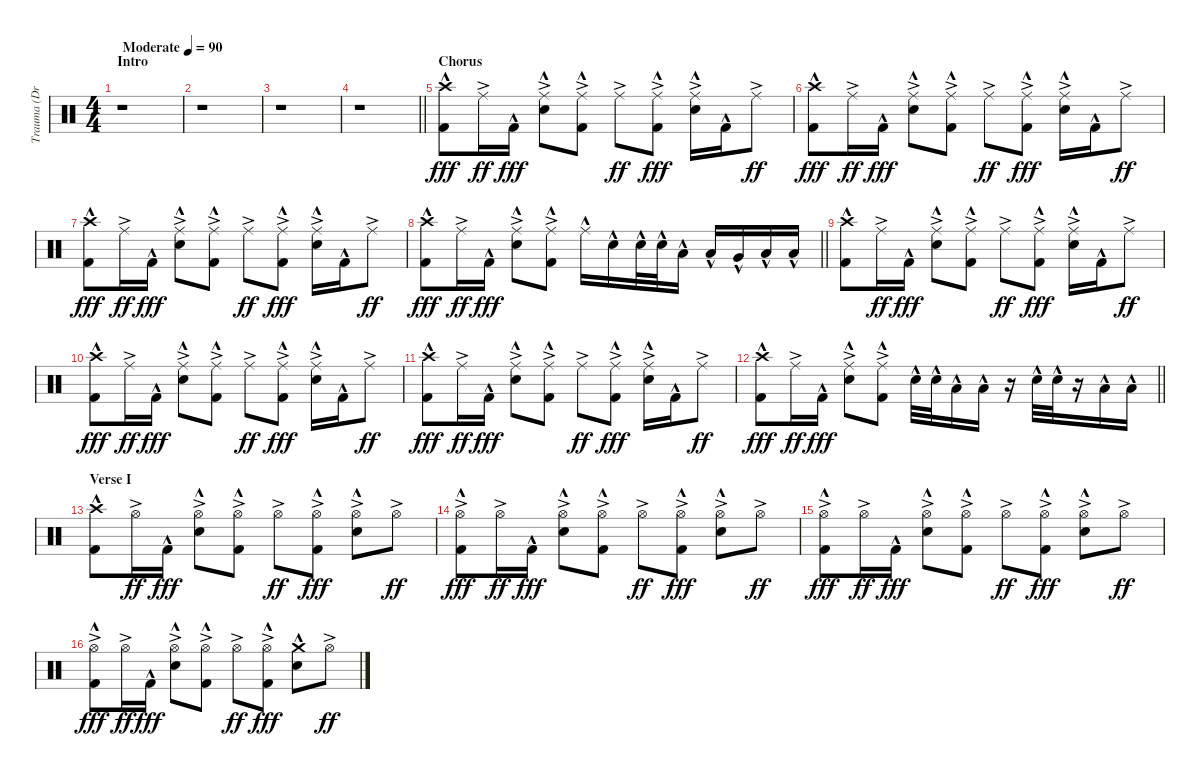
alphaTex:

\track ("Trauma (Drums)" "Trauma (Dr") {instrument percussion}
\staff {score}
\articulation defaults
\ts (4 4)
\section ("" "Intro")
\tempo (90 "Moderate")
\clef neutral
\ks c
r.1{dy fff} |
r.1 |
r.1 |
\barLineRight lightlight
r.1 |
\section ("" "Chorus")
("Crash high (hit)"{hac} "Kick (hit) 2"{hac}).8 "Ride (middle)"{ac}.16{dy ff} "Kick (hit) 2"{hac}.16{dy fff} ("Ride (middle)"{ac} "Snare (hit) 2"{hac}).8 ("Ride (middle)"{ac} "Kick (hit) 2"{hac}).8 "Ride (middle)"{ac}.8{dy ff} ("Ride (middle)"{ac} "Kick (hit) 2"{hac}).8{dy fff} ("Ride (middle)"{ac} "Snare (hit) 2"{hac}).16 "Kick (hit) 2"{hac}.16 "Ride (middle)"{ac}.8{dy ff} |
("Crash high (hit)"{hac} "Kick (hit) 2"{hac}).8{dy fff} "Ride (middle)"{ac}.16{dy ff} "Kick (hit) 2"{hac}.16{dy fff} ("Ride (middle)"{ac} "Snare (hit) 2"{hac}).8 ("Ride (middle)"{ac} "Kick (hit) 2"{hac}).8 "Ride (middle)"{ac}.8{dy ff} ("Ride (middle)"{ac} "Kick (hit) 2"{hac}).8{dy fff} ("Ride (middle)"{ac} "Snare (hit) 2"{hac}).16 "Kick (hit) 2"{hac}.16 "Ride (middle)"{ac}.8{dy ff} |
("Crash high (hit)"{hac} "Kick (hit) 2"{hac}).8{dy fff} "Ride (middle)"{ac}.16{dy ff} "Kick (hit) 2"{hac}.16{dy fff} ("Ride (middle)"{ac} "Snare (hit) 2"{hac}).8 ("Ride (middle)"{ac} "Kick (hit) 2"{hac}).8 "Ride (middle)"{ac}.8{dy ff} ("Ride (middle)"{ac} "Kick (hit) 2"{hac}).8{dy fff} ("Ride (middle)"{ac} "Snare (hit) 2"{hac}).16 "Kick (hit) 2"{hac}.16 "Ride (middle)"{ac}.8{dy ff} |
\barLineRight lightlight
("Crash high (hit)"{hac} "Kick (hit) 2"{hac}).8{dy fff} "Ride (middle)"{ac}.16{dy ff} "Kick (hit) 2"{hac}.16{dy fff} ("Ride (middle)"{ac} "Snare (hit) 2"{hac}).8 ("Ride (middle)"{ac} "Kick (hit) 2"{hac}).8 "Ride (middle)"{hac}.16 "Snare (hit) 2"{hac}.16 "Snare (hit) 2"{hac}.32 "Snare (hit) 2"{hac}.32 "Low Tom (hit)"{hac}.16 "Low Tom (hit)"{hac}.16 "Very Low Tom (hit)"{hac}.16 "Low Floor Tom (hit)"{hac}.16 "Low Floor Tom (hit)"{hac}.16 |
("Crash high (hit)"{hac} "Kick (hit) 2"{hac}).8 "Ride (middle)"{ac}.16{dy ff} "Kick (hit) 2"{hac}.16{dy fff} ("Ride (middle)"{ac} "Snare (hit) 2"{hac}).8 ("Ride (middle)"{ac} "Kick (hit) 2"{hac}).8 "Ride (middle)"{ac}.8{dy ff} ("Ride (middle)"{ac} "Kick (hit) 2"{hac}).8{dy fff} ("Ride (middle)"{ac} "Snare (hit) 2"{hac}).16 "Kick (hit) 2"{hac}.16 "Ride (middle)"{ac}.8{dy ff} |
("Crash high (hit)"{hac} "Kick (hit) 2"{hac}).8{dy fff} "Ride (middle)"{ac}.16{dy ff} "Kick (hit) 2"{hac}.16{dy fff} ("Ride (middle)"{ac} "Snare (hit) 2"{hac}).8 ("Ride (middle)"{ac} "Kick (hit) 2"{hac}).8 "Ride (middle)"{ac}.8{dy ff} ("Ride (middle)"{ac} "Kick (hit) 2"{hac}).8{dy fff} ("Ride (middle)"{ac} "Snare (hit) 2"{hac}).16 "Kick (hit) 2"{hac}.16 "Ride (middle)"{ac}.8{dy ff} |
("Crash high (hit)"{hac} "Kick (hit) 2"{hac}).8{dy fff} "Ride (middle)"{ac}.16{dy ff} "Kick (hit) 2"{hac}.16{dy fff} ("Ride (middle)"{ac} "Snare (hit) 2"{hac}).8 ("Ride (middle)"{ac} "Kick (hit) 2"{hac}).8 "Ride (middle)"{ac}.8{dy ff} ("Ride (middle)"{ac} "Kick (hit) 2"{hac}).8{dy fff} ("Ride (middle)"{ac} "Snare (hit) 2"{hac}).16 "Kick (hit) 2"{hac}.16 "Ride (middle)"{ac}.8{dy ff} |
\barLineRight lightlight
("Crash high (hit)"{hac} "Kick (hit) 2"{hac}).8{dy fff} "Ride (middle)"{ac}.16{dy ff} "Kick (hit) 2"{hac}.16{dy fff} ("Ride (middle)"{ac} "Snare (hit) 2"{hac}).8 ("Ride (middle)"{ac} "Kick (hit) 2"{hac}).8 "Snare (hit) 2"{hac}.32 "Snare (hit) 2"{hac}.32 "Low Tom (hit)"{hac}.16 "Low Tom (hit)"{hac}.16 r.16 "Snare (hit) 2"{hac}.32 "Snare (hit) 2"{hac}.32 r.16 "Low Floor Tom (hit)"{hac}.16 "Low Floor Tom (hit)"{hac}.16 |
\section ("" "Verse I")
("Crash high (hit)"{hac} "Kick (hit) 2"{hac}).8 "Hi-Hat (open)"{ac}.16{dy ff} "Kick (hit) 2"{hac}.16{dy fff} ("Hi-Hat (open)"{ac} "Snare (hit) 2"{hac}).8 ("Hi-Hat (open)"{ac} "Kick (hit) 2"{hac}).8 "Hi-Hat (open)"{ac}.8{dy ff} ("Hi-Hat (open)"{ac} "Kick (hit) 2"{hac}).8{dy fff} ("Hi-Hat (open)"{ac} "Snare (hit) 2"{hac}).8 "Hi-Hat (open)"{ac}.8{dy ff} |
("Hi-Hat (open)"{ac} "Kick (hit) 2"{hac}).8{dy fff} "Hi-Hat (open)"{ac}.16{dy ff} "Kick (hit) 2"{hac}.16{dy fff} ("Hi-Hat (open)"{ac} "Snare (hit) 2"{hac}).8 ("Hi-Hat (open)"{ac} "Kick (hit) 2"{hac}).8 "Hi-Hat (open)"{ac}.8{dy ff} ("Hi-Hat (open)"{ac} "Kick (hit) 2"{hac}).8{dy fff} ("Hi-Hat (open)"{ac} "Snare (hit) 2"{hac}).8 "Hi-Hat (open)"{ac}.8{dy ff} |
("Hi-Hat (open)"{ac} "Kick (hit) 2"{hac}).8{dy fff} "Hi-Hat (open)"{ac}.16{dy ff} "Kick (hit) 2"{hac}.16{dy fff} ("Hi-Hat (open)"{ac} "Snare (hit) 2"{hac}).8 ("Hi-Hat (open)"{ac} "Kick (hit) 2"{hac}).8 "Hi-Hat (open)"{ac}.8{dy ff} ("Hi-Hat (open)"{ac} "Kick (hit) 2"{hac}).8{dy fff} ("Hi-Hat (open)"{ac} "Snare (hit) 2"{hac}).8 "Hi-Hat (open)"{ac}.8{dy ff} |
("Hi-Hat (open)"{ac} "Kick (hit) 2"{hac}).8{dy fff} "Hi-Hat (open)"{ac}.16{dy ff} "Kick (hit) 2"{hac}.16{dy fff} ("Hi-Hat (open)"{ac} "Snare (hit) 2"{hac}).8 ("Hi-Hat (open)"{ac} "Kick (hit) 2"{hac}).8 "Hi-Hat (open)"{ac}.8{dy ff} ("Hi-Hat (open)"{ac} "Kick (hit) 2"{hac}).8{dy fff} ("Crash medium (hit)"{hac} "Snare (hit) 2"{hac}).8 "Hi-Hat (open)"{ac}.8{dy ff}
